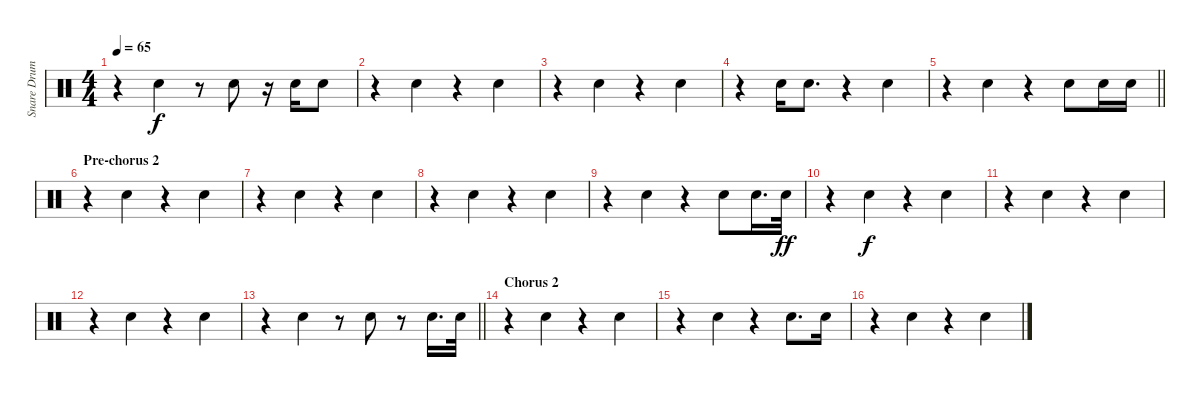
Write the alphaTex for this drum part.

\track ("Snare Drum - reverb" "Snare Drum") {instrument percussion}
\staff {score}
\articulation defaults
\ts (4 4)
\tempo 65
\clef neutral
\ks c
r.4{dy f beam merge} "Snare (hit) 2".4 r.8 "Snare (hit) 2".8 r.16 "Snare (hit) 2".16 "Snare (hit) 2".8 |
r.4 "Snare (hit) 2".4 r.4 "Snare (hit) 2".4 |
r.4 "Snare (hit) 2".4 r.4 "Snare (hit) 2".4 |
r.4{beam merge} "Snare (hit) 2".16 "Snare (hit) 2".8{d} r.4{beam merge} "Snare (hit) 2".4 |
\barLineRight lightlight
r.4{beam merge} "Snare (hit) 2".4 r.4{beam split} "Snare (hit) 2".8 "Snare (hit) 2".16 "Snare (hit) 2".16 |
\section ("" "Pre-chorus 2")
r.4 "Snare (hit) 2".4 r.4 "Snare (hit) 2".4 |
r.4 "Snare (hit) 2".4 r.4 "Snare (hit) 2".4 |
r.4 "Snare (hit) 2".4 r.4 "Snare (hit) 2".4 |
r.4 "Snare (hit) 2".4 r.4 "Snare (hit) 2".8 "Snare (hit) 2".16{d} "Snare (hit) 2".32{dy ff} |
r.4 "Snare (hit) 2".4{dy f} r.4 "Snare (hit) 2".4 |
r.4 "Snare (hit) 2".4 r.4 "Snare (hit) 2".4 |
r.4 "Snare (hit) 2".4 r.4 "Snare (hit) 2".4 |
\barLineRight lightlight
r.4 "Snare (hit) 2".4 r.8 "Snare (hit) 2".8 r.8{beam splitsecondary} "Snare (hit) 2".16{d} "Snare (hit) 2".32 |
\section ("" "Chorus 2")
r.4 "Snare (hit) 2".4 r.4 "Snare (hit) 2".4 |
r.4 "Snare (hit) 2".4 r.4 "Snare (hit) 2".8{d} "Snare (hit) 2".16 |
r.4 "Snare (hit) 2".4 r.4 "Snare (hit) 2".4
